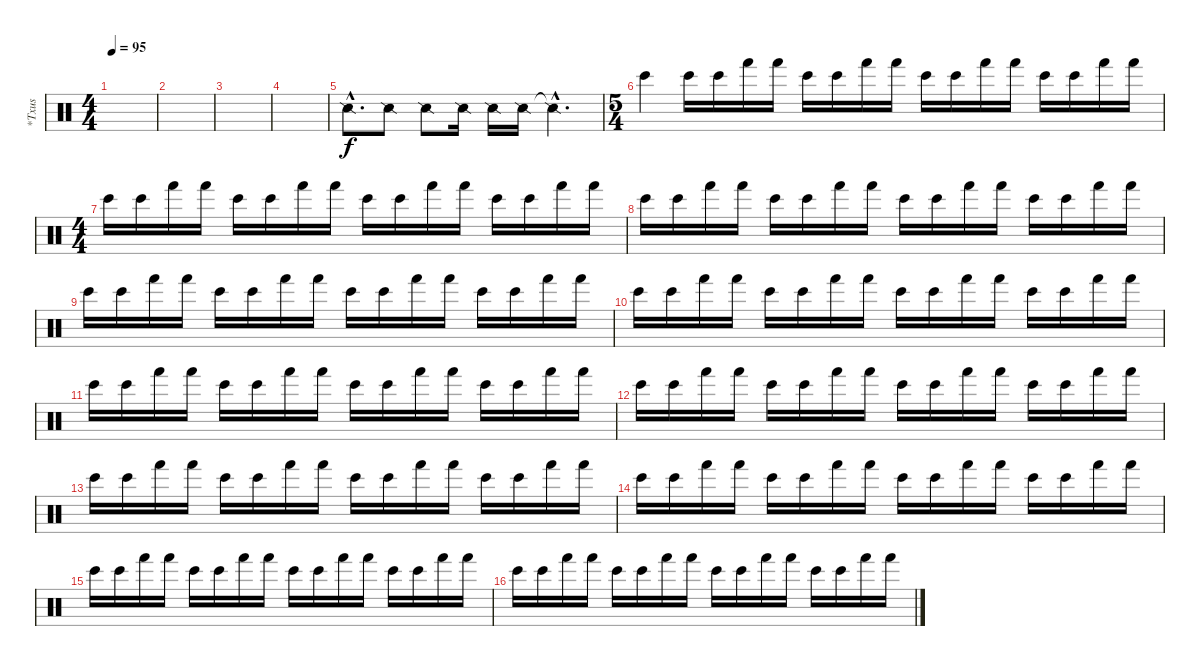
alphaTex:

\track ("*Txus" "*Txus") {instrument percussion}
\staff {score}
\articulation defaults
\ts (4 4)
\tempo 95
\clef neutral
\ks c
|
|
|
|
"Snare (side stick) 2"{hac}.8{d} "Snare (side stick) 2".8 "Snare (side stick) 2".8 "Snare (side stick) 2".16 "Snare (side stick) 2".16 "Snare (side stick) 2".16 "Snare (side stick) 2"{hac t}.4{d} |
\ts (5 4)
"Bongo High (hit)".4 "Bongo High (hit)".16 "Bongo High (hit)".16 "Hand (hit)".16 "Hand (hit)".16 "Bongo High (hit)".16 "Bongo High (hit)".16 "Hand (hit)".16 "Hand (hit)".16 "Bongo High (hit)".16 "Bongo High (hit)".16 "Hand (hit)".16 "Hand (hit)".16 "Bongo High (hit)".16 "Bongo High (hit)".16 "Hand (hit)".16 "Hand (hit)".16 |
\ts (4 4)
"Bongo High (hit)".16 "Bongo High (hit)".16 "Hand (hit)".16 "Hand (hit)".16 "Bongo High (hit)".16 "Bongo High (hit)".16 "Hand (hit)".16 "Hand (hit)".16 "Bongo High (hit)".16 "Bongo High (hit)".16 "Hand (hit)".16 "Hand (hit)".16 "Bongo High (hit)".16 "Bongo High (hit)".16 "Hand (hit)".16 "Hand (hit)".16 |
"Bongo High (hit)".16 "Bongo High (hit)".16 "Hand (hit)".16 "Hand (hit)".16 "Bongo High (hit)".16 "Bongo High (hit)".16 "Hand (hit)".16 "Hand (hit)".16 "Bongo High (hit)".16 "Bongo High (hit)".16 "Hand (hit)".16 "Hand (hit)".16 "Bongo High (hit)".16 "Bongo High (hit)".16 "Hand (hit)".16 "Hand (hit)".16 |
"Bongo High (hit)".16 "Bongo High (hit)".16 "Hand (hit)".16 "Hand (hit)".16 "Bongo High (hit)".16 "Bongo High (hit)".16 "Hand (hit)".16 "Hand (hit)".16 "Bongo High (hit)".16 "Bongo High (hit)".16 "Hand (hit)".16 "Hand (hit)".16 "Bongo High (hit)".16 "Bongo High (hit)".16 "Hand (hit)".16 "Hand (hit)".16 |
"Bongo High (hit)".16 "Bongo High (hit)".16 "Hand (hit)".16 "Hand (hit)".16 "Bongo High (hit)".16 "Bongo High (hit)".16 "Hand (hit)".16 "Hand (hit)".16 "Bongo High (hit)".16 "Bongo High (hit)".16 "Hand (hit)".16 "Hand (hit)".16 "Bongo High (hit)".16 "Bongo High (hit)".16 "Hand (hit)".16 "Hand (hit)".16 |
"Bongo High (hit)".16 "Bongo High (hit)".16 "Hand (hit)".16 "Hand (hit)".16 "Bongo High (hit)".16 "Bongo High (hit)".16 "Hand (hit)".16 "Hand (hit)".16 "Bongo High (hit)".16 "Bongo High (hit)".16 "Hand (hit)".16 "Hand (hit)".16 "Bongo High (hit)".16 "Bongo High (hit)".16 "Hand (hit)".16 "Hand (hit)".16 |
"Bongo High (hit)".16 "Bongo High (hit)".16 "Hand (hit)".16 "Hand (hit)".16 "Bongo High (hit)".16 "Bongo High (hit)".16 "Hand (hit)".16 "Hand (hit)".16 "Bongo High (hit)".16 "Bongo High (hit)".16 "Hand (hit)".16 "Hand (hit)".16 "Bongo High (hit)".16 "Bongo High (hit)".16 "Hand (hit)".16 "Hand (hit)".16 |
"Bongo High (hit)".16 "Bongo High (hit)".16 "Hand (hit)".16 "Hand (hit)".16 "Bongo High (hit)".16 "Bongo High (hit)".16 "Hand (hit)".16 "Hand (hit)".16 "Bongo High (hit)".16 "Bongo High (hit)".16 "Hand (hit)".16 "Hand (hit)".16 "Bongo High (hit)".16 "Bongo High (hit)".16 "Hand (hit)".16 "Hand (hit)".16 |
"Bongo High (hit)".16 "Bongo High (hit)".16 "Hand (hit)".16 "Hand (hit)".16 "Bongo High (hit)".16 "Bongo High (hit)".16 "Hand (hit)".16 "Hand (hit)".16 "Bongo High (hit)".16 "Bongo High (hit)".16 "Hand (hit)".16 "Hand (hit)".16 "Bongo High (hit)".16 "Bongo High (hit)".16 "Hand (hit)".16 "Hand (hit)".16 |
"Bongo High (hit)".16 "Bongo High (hit)".16 "Hand (hit)".16 "Hand (hit)".16 "Bongo High (hit)".16 "Bongo High (hit)".16 "Hand (hit)".16 "Hand (hit)".16 "Bongo High (hit)".16 "Bongo High (hit)".16 "Hand (hit)".16 "Hand (hit)".16 "Bongo High (hit)".16 "Bongo High (hit)".16 "Hand (hit)".16 "Hand (hit)".16 |
"Bongo High (hit)".16 "Bongo High (hit)".16 "Hand (hit)".16 "Hand (hit)".16 "Bongo High (hit)".16 "Bongo High (hit)".16 "Hand (hit)".16 "Hand (hit)".16 "Bongo High (hit)".16 "Bongo High (hit)".16 "Hand (hit)".16 "Hand (hit)".16 "Bongo High (hit)".16 "Bongo High (hit)".16 "Hand (hit)".16 "Hand (hit)".16
